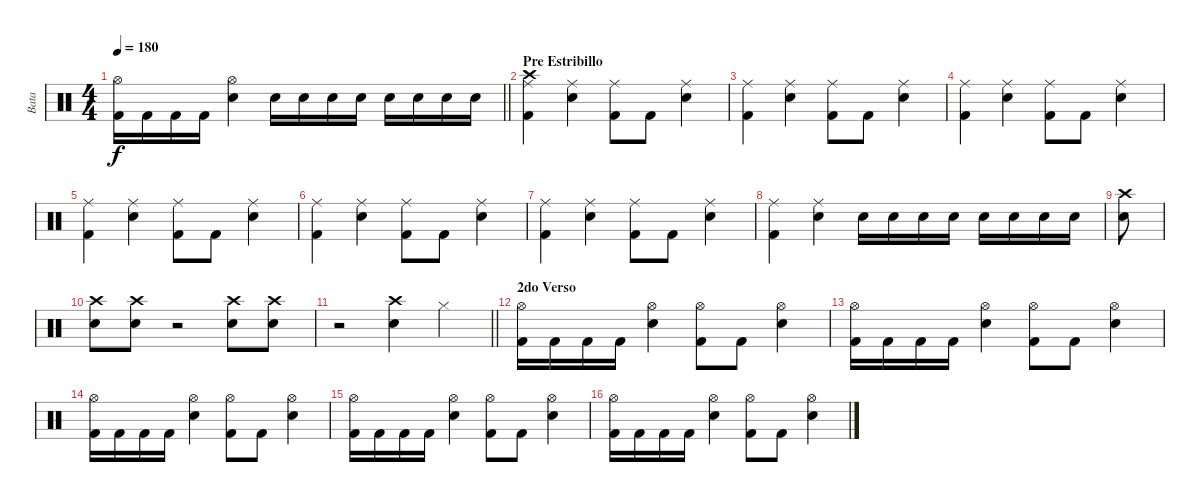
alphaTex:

\track ("Bata" "Bata") {instrument percussion}
\staff {score}
\articulation defaults
\ts (4 4)
\tempo 180
\clef neutral
\barLineRight lightlight
\ks c
("Hi-Hat (open)" "Kick (hit) 2").16{dy f} "Kick (hit) 2".16 "Kick (hit) 2".16 "Kick (hit) 2".16 ("Hi-Hat (open)" "Snare (hit) 2").4 "Snare (hit) 2".16 "Snare (hit) 2".16 "Snare (hit) 2".16 "Snare (hit) 2".16 "Snare (hit) 2".16 "Snare (hit) 2".16 "Snare (hit) 2".16 "Snare (hit) 2".16 |
\section ("" "Pre Estribillo")
("Ride (middle)" "Crash high (hit)" "Kick (hit) 2").4 ("Ride (middle)" "Snare (hit) 2").4 ("Ride (middle)" "Kick (hit) 2").8 "Kick (hit) 2".8 ("Ride (middle)" "Snare (hit) 2").4 |
("Ride (middle)" "Kick (hit) 2").4 ("Ride (middle)" "Snare (hit) 2").4 ("Ride (middle)" "Kick (hit) 2").8 "Kick (hit) 2".8 ("Ride (middle)" "Snare (hit) 2").4 |
("Ride (middle)" "Kick (hit) 2").4 ("Ride (middle)" "Snare (hit) 2").4 ("Ride (middle)" "Kick (hit) 2").8 "Kick (hit) 2".8 ("Ride (middle)" "Snare (hit) 2").4 |
("Ride (middle)" "Kick (hit) 2").4 ("Ride (middle)" "Snare (hit) 2").4 ("Ride (middle)" "Kick (hit) 2").8 "Kick (hit) 2".8 ("Ride (middle)" "Snare (hit) 2").4 |
("Ride (middle)" "Kick (hit) 2").4 ("Ride (middle)" "Snare (hit) 2").4 ("Ride (middle)" "Kick (hit) 2").8 "Kick (hit) 2".8 ("Ride (middle)" "Snare (hit) 2").4 |
("Ride (middle)" "Kick (hit) 2").4 ("Ride (middle)" "Snare (hit) 2").4 ("Ride (middle)" "Kick (hit) 2").8 "Kick (hit) 2".8 ("Ride (middle)" "Snare (hit) 2").4 |
("Ride (middle)" "Kick (hit) 2").4 ("Ride (middle)" "Snare (hit) 2").4 "Snare (hit) 2".16 "Snare (hit) 2".16 "Snare (hit) 2".16 "Snare (hit) 2".16 "Snare (hit) 2".16 "Snare (hit) 2".16 "Snare (hit) 2".16 "Snare (hit) 2".16 |
("Crash high (hit)" "Snare (hit) 2").8 |
("Crash high (hit)" "Snare (hit) 2").8 ("Crash high (hit)" "Snare (hit) 2").8 r.2 ("Crash high (hit)" "Snare (hit) 2").8 ("Crash high (hit)" "Snare (hit) 2").8 |
\barLineRight lightlight
r.2 ("Crash high (hit)" "Snare (hit) 2").4 "Hi-Hat (closed)".4 |
\section ("" "2do Verso")
("Hi-Hat (open)" "Kick (hit) 2").16 "Kick (hit) 2".16 "Kick (hit) 2".16 "Kick (hit) 2".16 ("Hi-Hat (open)" "Snare (hit) 2").4 ("Hi-Hat (open)" "Kick (hit) 2").8 "Kick (hit) 2".8 ("Hi-Hat (open)" "Snare (hit) 2").4 |
("Hi-Hat (open)" "Kick (hit) 2").16 "Kick (hit) 2".16 "Kick (hit) 2".16 "Kick (hit) 2".16 ("Hi-Hat (open)" "Snare (hit) 2").4 ("Hi-Hat (open)" "Kick (hit) 2").8 "Kick (hit) 2".8 ("Hi-Hat (open)" "Snare (hit) 2").4 |
("Hi-Hat (open)" "Kick (hit) 2").16 "Kick (hit) 2".16 "Kick (hit) 2".16 "Kick (hit) 2".16 ("Hi-Hat (open)" "Snare (hit) 2").4 ("Hi-Hat (open)" "Kick (hit) 2").8 "Kick (hit) 2".8 ("Hi-Hat (open)" "Snare (hit) 2").4 |
("Hi-Hat (open)" "Kick (hit) 2").16 "Kick (hit) 2".16 "Kick (hit) 2".16 "Kick (hit) 2".16 ("Hi-Hat (open)" "Snare (hit) 2").4 ("Hi-Hat (open)" "Kick (hit) 2").8 "Kick (hit) 2".8 ("Hi-Hat (open)" "Snare (hit) 2").4 |
("Hi-Hat (open)" "Kick (hit) 2").16 "Kick (hit) 2".16 "Kick (hit) 2".16 "Kick (hit) 2".16 ("Hi-Hat (open)" "Snare (hit) 2").4 ("Hi-Hat (open)" "Kick (hit) 2").8 "Kick (hit) 2".8 ("Hi-Hat (open)" "Snare (hit) 2").4
